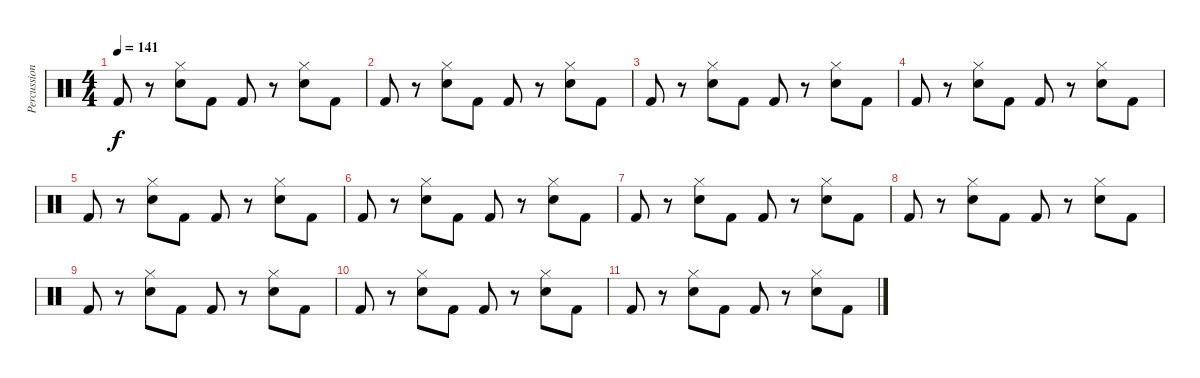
\track ("Percussion" "Percussion") {instrument percussion}
\staff {score}
\articulation defaults
\ts (4 4)
\tempo 141
\clef neutral
\ks c "Kick (hit) 2".8{dy f}
r.8 ("Hi-Hat (closed)" "Snare (hit) 2").8 "Kick (hit) 2".8 "Kick (hit) 2".8 r.8 ("Hi-Hat (closed)" "Snare (hit) 2").8 "Kick (hit) 2".8 |
"Kick (hit) 2".8 r.8 ("Hi-Hat (closed)" "Snare (hit) 2").8 "Kick (hit) 2".8 "Kick (hit) 2".8 r.8 ("Hi-Hat (closed)" "Snare (hit) 2").8 "Kick (hit) 2".8 |
"Kick (hit) 2".8 r.8 ("Hi-Hat (closed)" "Snare (hit) 2").8 "Kick (hit) 2".8 "Kick (hit) 2".8 r.8 ("Hi-Hat (closed)" "Snare (hit) 2").8 "Kick (hit) 2".8 |
"Kick (hit) 2".8 r.8 ("Hi-Hat (closed)" "Snare (hit) 2").8 "Kick (hit) 2".8 "Kick (hit) 2".8 r.8 ("Hi-Hat (closed)" "Snare (hit) 2").8 "Kick (hit) 2".8 |
"Kick (hit) 2".8 r.8 ("Hi-Hat (closed)" "Snare (hit) 2").8 "Kick (hit) 2".8 "Kick (hit) 2".8 r.8 ("Hi-Hat (closed)" "Snare (hit) 2").8 "Kick (hit) 2".8 |
"Kick (hit) 2".8 r.8 ("Hi-Hat (closed)" "Snare (hit) 2").8 "Kick (hit) 2".8 "Kick (hit) 2".8 r.8 ("Hi-Hat (closed)" "Snare (hit) 2").8 "Kick (hit) 2".8 |
"Kick (hit) 2".8 r.8 ("Hi-Hat (closed)" "Snare (hit) 2").8 "Kick (hit) 2".8 "Kick (hit) 2".8 r.8 ("Hi-Hat (closed)" "Snare (hit) 2").8 "Kick (hit) 2".8 |
"Kick (hit) 2".8 r.8 ("Hi-Hat (closed)" "Snare (hit) 2").8 "Kick (hit) 2".8 "Kick (hit) 2".8 r.8 ("Hi-Hat (closed)" "Snare (hit) 2").8 "Kick (hit) 2".8 |
"Kick (hit) 2".8 r.8 ("Hi-Hat (closed)" "Snare (hit) 2").8 "Kick (hit) 2".8 "Kick (hit) 2".8 r.8 ("Hi-Hat (closed)" "Snare (hit) 2").8 "Kick (hit) 2".8 |
"Kick (hit) 2".8 r.8 ("Hi-Hat (closed)" "Snare (hit) 2").8 "Kick (hit) 2".8 "Kick (hit) 2".8 r.8 ("Hi-Hat (closed)" "Snare (hit) 2").8 "Kick (hit) 2".8 |
"Kick (hit) 2".8 r.8 ("Hi-Hat (closed)" "Snare (hit) 2").8 "Kick (hit) 2".8 "Kick (hit) 2".8 r.8 ("Hi-Hat (closed)" "Snare (hit) 2").8 "Kick (hit) 2".8
